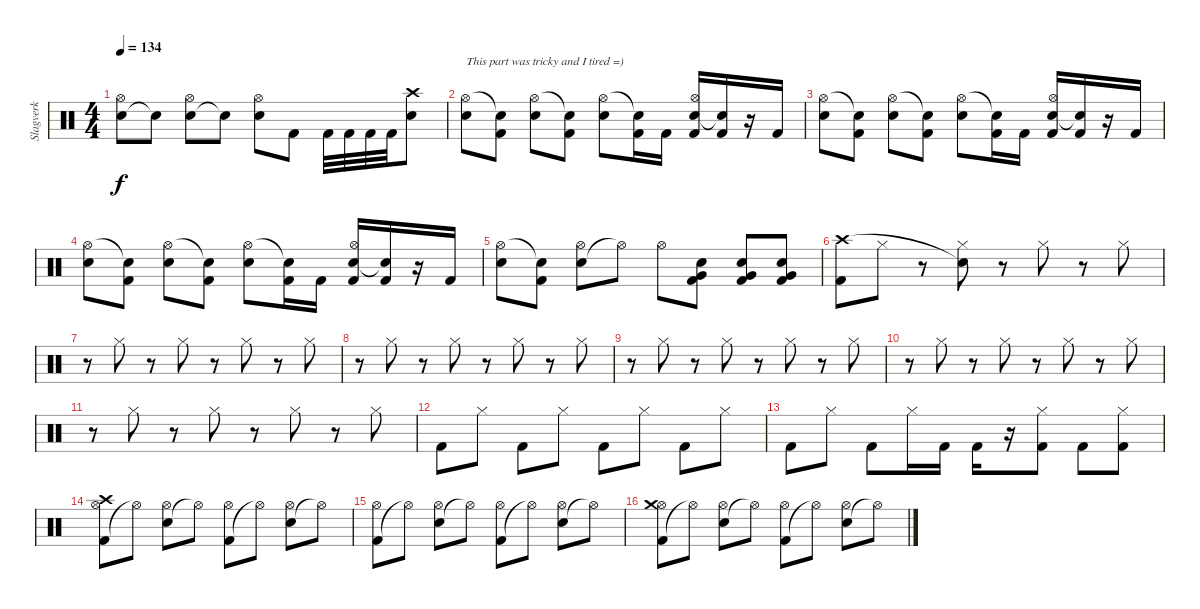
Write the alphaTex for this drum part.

\track ("Slagverk" "Slagverk") {instrument percussion}
\staff {score}
\articulation defaults
\ts (4 4)
\tempo 134
\clef neutral
\ks c
("Electric Snare (hit)" "Hi-Hat (open)").8{dy f} "Snare (hit)"{t}.8 ("Electric Snare (hit)" "Hi-Hat (open)").8 "Snare (hit)"{t}.8 ("Electric Snare (hit)" "Hi-Hat (open)").8 "Kick (hit) 2".8 "Kick (hit) 2".32 "Kick (hit) 2".32 "Kick (hit) 2".32 "Kick (hit) 2".32 ("Electric Snare (hit)" "Crash high (hit)").8 |
("Electric Snare (hit)" "Hi-Hat (open)").8{txt "This part was tricky and I tired =)"} ("Kick (hit) 2" "Snare (hit)"{t}).8 ("Electric Snare (hit)" "Hi-Hat (open)").8 ("Kick (hit) 2" "Snare (hit)"{t}).8 ("Electric Snare (hit)" "Hi-Hat (open)").8 ("Kick (hit) 2" "Snare (hit)"{t}).16 "Kick (hit) 2".16 ("Kick (hit) 2" "Electric Snare (hit)" "Hi-Hat (open)").16 ("Kick (hit) 2" "Snare (hit)"{t}).16 r.16 "Kick (hit) 2".16 |
("Electric Snare (hit)" "Hi-Hat (open)").8 ("Kick (hit) 2" "Snare (hit)"{t}).8 ("Electric Snare (hit)" "Hi-Hat (open)").8 ("Kick (hit) 2" "Snare (hit)"{t}).8 ("Electric Snare (hit)" "Hi-Hat (open)").8 ("Kick (hit) 2" "Snare (hit)"{t}).16 "Kick (hit) 2".16 ("Kick (hit) 2" "Electric Snare (hit)" "Hi-Hat (open)").16 ("Kick (hit) 2" "Snare (hit)"{t}).16 r.16 "Kick (hit) 2".16 |
("Electric Snare (hit)" "Hi-Hat (open)").8 ("Kick (hit) 2" "Snare (hit)"{t}).8 ("Electric Snare (hit)" "Hi-Hat (open)").8 ("Kick (hit) 2" "Snare (hit)"{t}).8 ("Electric Snare (hit)" "Hi-Hat (open)").8 ("Kick (hit) 2" "Snare (hit)"{t}).16 "Kick (hit) 2".16 ("Kick (hit) 2" "Electric Snare (hit)" "Hi-Hat (open)").16 ("Kick (hit) 2" "Snare (hit)"{t}).16 r.16 "Kick (hit) 2".16 |
("Electric Snare (hit)" "Hi-Hat (open)").8 ("Kick (hit) 2" "Snare (hit)"{t}).8 ("Electric Snare (hit)" "Hi-Hat (open)").8 "Hi-Hat (open)"{t}.8 "Hi-Hat (open)".8 ("Kick (hit) 2" "Electric Snare (hit)" "Very Low Tom (hit)").8 ("Kick (hit) 2" "Electric Snare (hit)" "Very Low Tom (hit)").8 ("Kick (hit) 2" "Electric Snare (hit)" "Very Low Tom (hit)").8 |
("Kick (hit) 2" "Crash high (hit)").8 "Hi-Hat (closed)".8 r.8 ("Hi-Hat (closed)" "Snare (hit)"{t}).8 r.8 "Hi-Hat (closed)".8 r.8 "Hi-Hat (closed)".8 |
r.8 "Hi-Hat (closed)".8 r.8 "Hi-Hat (closed)".8 r.8 "Hi-Hat (closed)".8 r.8 "Hi-Hat (closed)".8 |
r.8 "Hi-Hat (closed)".8 r.8 "Hi-Hat (closed)".8 r.8 "Hi-Hat (closed)".8 r.8 "Hi-Hat (closed)".8 |
r.8 "Hi-Hat (closed)".8 r.8 "Hi-Hat (closed)".8 r.8 "Hi-Hat (closed)".8 r.8 "Hi-Hat (closed)".8 |
r.8 "Hi-Hat (closed)".8 r.8 "Hi-Hat (closed)".8 r.8 "Hi-Hat (closed)".8 r.8 "Hi-Hat (closed)".8 |
r.8 "Hi-Hat (closed)".8 r.8 "Hi-Hat (closed)".8 r.8 "Hi-Hat (closed)".8 r.8 "Hi-Hat (closed)".8 |
"Kick (hit) 2".8 "Hi-Hat (closed)".8 "Kick (hit) 2".8 "Hi-Hat (closed)".8 "Kick (hit) 2".8 "Hi-Hat (closed)".8 "Kick (hit) 2".8 "Hi-Hat (closed)".8 |
"Kick (hit) 2".8 "Hi-Hat (closed)".8 "Kick (hit) 2".8 "Hi-Hat (closed)".16 "Kick (hit) 2".16 "Kick (hit) 2".16 r.16 ("Kick (hit) 2" "Hi-Hat (closed)").8 "Kick (hit) 2".8 ("Kick (hit) 2" "Hi-Hat (closed)").8 |
("Kick (hit) 2" "Hi-Hat (open)" "Crash high (hit)").8 "Hi-Hat (open)"{t}.8 ("Electric Snare (hit)" "Hi-Hat (open)").8 "Hi-Hat (open)"{t}.8 ("Kick (hit) 2" "Hi-Hat (open)").8 "Hi-Hat (open)"{t}.8 ("Electric Snare (hit)" "Hi-Hat (open)").8 "Hi-Hat (open)"{t}.8 |
("Kick (hit) 2" "Hi-Hat (open)").8 "Hi-Hat (open)"{t}.8 ("Electric Snare (hit)" "Hi-Hat (open)").8 "Hi-Hat (open)"{t}.8 ("Kick (hit) 2" "Hi-Hat (open)").8 "Hi-Hat (open)"{t}.8 ("Electric Snare (hit)" "Hi-Hat (open)").8 "Hi-Hat (open)"{t}.8 |
("Kick (hit) 2" "Hi-Hat (open)" "Crash medium (hit)").8 "Hi-Hat (open)"{t}.8 ("Electric Snare (hit)" "Hi-Hat (open)").8 "Hi-Hat (open)"{t}.8 ("Kick (hit) 2" "Hi-Hat (open)").8 "Hi-Hat (open)"{t}.8 ("Electric Snare (hit)" "Hi-Hat (open)").8 "Hi-Hat (open)"{t}.8
